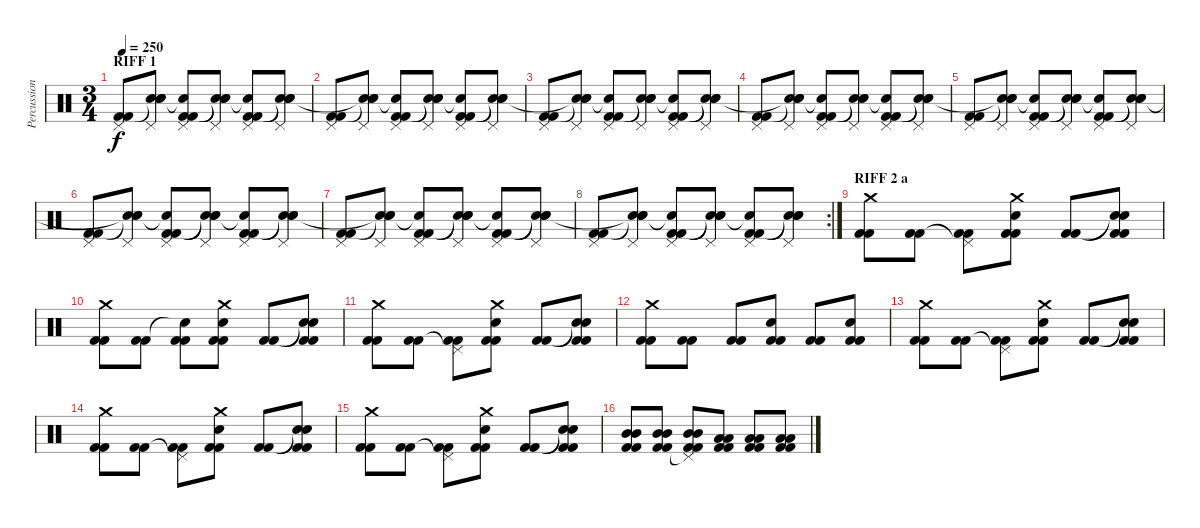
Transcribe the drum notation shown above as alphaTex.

\track ("Percussion" "Percussion") {instrument percussion}
\staff {score}
\articulation defaults
\ts (3 4)
\section ("" "RIFF 1")
\tempo 250
\clef neutral
\ks c
("Pedal Hi-Hat (hit)" "Kick (hit) 2" "Kick (hit) 2").8{dy f} ("Snare (hit) 2" "Pedal Hi-Hat (hit)" "Snare (hit)"{t} "Snare (hit)").8 ("Snare (hit)"{t} "Pedal Hi-Hat (hit)" "Kick (hit) 2" "Kick (hit) 2").8 ("Snare (hit) 2" "Pedal Hi-Hat (hit)" "Snare (hit)"{t} "Snare (hit)"{t}).8 ("Snare (hit)"{t} "Pedal Hi-Hat (hit)" "Kick (hit) 2" "Kick (hit) 2").8 ("Snare (hit) 2" "Pedal Hi-Hat (hit)" "Snare (hit)"{t} "Snare (hit)"{t}).8 |
("Pedal Hi-Hat (hit)" "Kick (hit) 2" "Kick (hit) 2").8 ("Snare (hit) 2" "Pedal Hi-Hat (hit)" "Snare (hit)"{t} "Snare (hit)"{t}).8 ("Snare (hit)"{t} "Pedal Hi-Hat (hit)" "Kick (hit) 2" "Kick (hit) 2").8 ("Snare (hit) 2" "Pedal Hi-Hat (hit)" "Snare (hit)"{t} "Snare (hit)"{t}).8 ("Snare (hit)"{t} "Pedal Hi-Hat (hit)" "Kick (hit) 2" "Kick (hit) 2").8 ("Snare (hit) 2" "Pedal Hi-Hat (hit)" "Snare (hit)"{t} "Snare (hit)"{t}).8 |
("Pedal Hi-Hat (hit)" "Kick (hit) 2" "Kick (hit) 2").8 ("Snare (hit) 2" "Pedal Hi-Hat (hit)" "Snare (hit)"{t} "Snare (hit)"{t}).8 ("Snare (hit)"{t} "Pedal Hi-Hat (hit)" "Kick (hit) 2" "Kick (hit) 2").8 ("Snare (hit) 2" "Pedal Hi-Hat (hit)" "Snare (hit)"{t} "Snare (hit)"{t}).8 ("Snare (hit)"{t} "Pedal Hi-Hat (hit)" "Kick (hit) 2" "Kick (hit) 2").8 ("Snare (hit) 2" "Pedal Hi-Hat (hit)" "Snare (hit)"{t} "Snare (hit)"{t}).8 |
("Pedal Hi-Hat (hit)" "Kick (hit) 2" "Kick (hit) 2").8 ("Snare (hit) 2" "Pedal Hi-Hat (hit)" "Snare (hit)"{t} "Snare (hit)"{t}).8 ("Snare (hit)"{t} "Pedal Hi-Hat (hit)" "Kick (hit) 2" "Kick (hit) 2").8 ("Snare (hit) 2" "Pedal Hi-Hat (hit)" "Snare (hit)"{t} "Snare (hit)"{t}).8 ("Snare (hit)"{t} "Pedal Hi-Hat (hit)" "Kick (hit) 2" "Kick (hit) 2").8 ("Snare (hit) 2" "Pedal Hi-Hat (hit)" "Snare (hit)"{t} "Snare (hit)"{t}).8 |
("Pedal Hi-Hat (hit)" "Kick (hit) 2" "Kick (hit) 2").8 ("Snare (hit) 2" "Pedal Hi-Hat (hit)" "Snare (hit)"{t} "Snare (hit)"{t}).8 ("Snare (hit)"{t} "Pedal Hi-Hat (hit)" "Kick (hit) 2" "Kick (hit) 2").8 ("Snare (hit) 2" "Pedal Hi-Hat (hit)" "Snare (hit)"{t} "Snare (hit)"{t}).8 ("Snare (hit)"{t} "Pedal Hi-Hat (hit)" "Kick (hit) 2" "Kick (hit) 2").8 ("Snare (hit) 2" "Pedal Hi-Hat (hit)" "Snare (hit)"{t} "Snare (hit)"{t}).8 |
("Pedal Hi-Hat (hit)" "Kick (hit) 2" "Kick (hit) 2").8 ("Snare (hit) 2" "Pedal Hi-Hat (hit)" "Snare (hit)"{t} "Snare (hit)"{t}).8 ("Snare (hit)"{t} "Pedal Hi-Hat (hit)" "Kick (hit) 2" "Kick (hit) 2").8 ("Snare (hit) 2" "Pedal Hi-Hat (hit)" "Snare (hit)"{t} "Snare (hit)"{t}).8 ("Snare (hit)"{t} "Pedal Hi-Hat (hit)" "Kick (hit) 2" "Kick (hit) 2").8 ("Snare (hit) 2" "Pedal Hi-Hat (hit)" "Snare (hit)"{t} "Snare (hit)"{t}).8 |
("Pedal Hi-Hat (hit)" "Kick (hit) 2" "Kick (hit) 2").8 ("Snare (hit) 2" "Pedal Hi-Hat (hit)" "Snare (hit)"{t} "Snare (hit)"{t}).8 ("Snare (hit)"{t} "Pedal Hi-Hat (hit)" "Kick (hit) 2" "Kick (hit) 2").8 ("Snare (hit) 2" "Pedal Hi-Hat (hit)" "Snare (hit)"{t} "Snare (hit)"{t}).8 ("Snare (hit)"{t} "Pedal Hi-Hat (hit)" "Kick (hit) 2" "Kick (hit) 2").8 ("Snare (hit) 2" "Pedal Hi-Hat (hit)" "Snare (hit)"{t} "Snare (hit)"{t}).8 |
\rc 2
("Pedal Hi-Hat (hit)" "Kick (hit) 2" "Kick (hit) 2").8 ("Snare (hit) 2" "Pedal Hi-Hat (hit)" "Snare (hit)"{t} "Snare (hit)"{t}).8 ("Snare (hit)"{t} "Pedal Hi-Hat (hit)" "Kick (hit) 2" "Kick (hit) 2").8 ("Snare (hit) 2" "Pedal Hi-Hat (hit)" "Snare (hit)"{t} "Snare (hit)"{t}).8 ("Snare (hit)"{t} "Pedal Hi-Hat (hit)" "Kick (hit) 2" "Kick (hit) 2").8 ("Snare (hit) 2" "Pedal Hi-Hat (hit)" "Snare (hit)"{t} "Snare (hit)"{t}).8 |
\section ("" "RIFF 2 a")
("Crash medium (hit)" "Kick (hit) 2" "Kick (hit) 2").8 ("Kick (hit) 2" "Kick (hit) 2").8 ("Pedal Hi-Hat (hit)"{t} "Kick (hit) 2" "Kick (hit) 2").8 ("Snare (hit) 2" "Crash medium (hit)" "Kick (hit) 2" "Kick (hit) 2").8 ("Kick (hit) 2" "Kick (hit) 2").8 ("Snare (hit)"{t} "Snare (hit)"{t} "Kick (hit) 2" "Kick (hit) 2").8 |
("Crash medium (hit)" "Kick (hit) 2" "Kick (hit) 2").8 ("Kick (hit) 2" "Kick (hit) 2").8 ("Snare (hit)"{t} "Kick (hit) 2" "Kick (hit) 2").8 ("Snare (hit) 2" "Crash medium (hit)" "Kick (hit) 2" "Kick (hit) 2").8 ("Kick (hit) 2" "Kick (hit) 2").8 ("Snare (hit)"{t} "Snare (hit)"{t} "Kick (hit) 2" "Kick (hit) 2").8 |
("Crash medium (hit)" "Kick (hit) 2" "Kick (hit) 2").8 ("Kick (hit) 2" "Kick (hit) 2").8 ("Pedal Hi-Hat (hit)"{t} "Kick (hit) 2" "Kick (hit) 2").8 ("Snare (hit) 2" "Crash medium (hit)" "Kick (hit) 2" "Kick (hit) 2").8 ("Kick (hit) 2" "Kick (hit) 2").8 ("Snare (hit)"{t} "Snare (hit)"{t} "Kick (hit) 2" "Kick (hit) 2").8 |
("Crash medium (hit)" "Kick (hit) 2" "Kick (hit) 2").8 ("Kick (hit) 2" "Kick (hit) 2").8 ("Kick (hit) 2" "Kick (hit) 2").8 ("Snare (hit) 2" "Kick (hit) 2" "Kick (hit) 2").8 ("Kick (hit) 2" "Kick (hit) 2").8 ("Snare (hit) 2" "Kick (hit) 2" "Kick (hit) 2").8 |
("Crash medium (hit)" "Kick (hit) 2" "Kick (hit) 2").8 ("Kick (hit) 2" "Kick (hit) 2").8 ("Pedal Hi-Hat (hit)"{t} "Kick (hit) 2" "Kick (hit) 2").8 ("Snare (hit) 2" "Crash medium (hit)" "Kick (hit) 2" "Kick (hit) 2").8 ("Kick (hit) 2" "Kick (hit) 2").8 ("Snare (hit)"{t} "Snare (hit)"{t} "Kick (hit) 2" "Kick (hit) 2").8 |
("Crash medium (hit)" "Kick (hit) 2" "Kick (hit) 2").8 ("Kick (hit) 2" "Kick (hit) 2").8 ("Pedal Hi-Hat (hit)"{t} "Kick (hit) 2" "Kick (hit) 2").8 ("Snare (hit) 2" "Crash medium (hit)" "Kick (hit) 2" "Kick (hit) 2").8 ("Kick (hit) 2" "Kick (hit) 2").8 ("Snare (hit)"{t} "Snare (hit)"{t} "Kick (hit) 2" "Kick (hit) 2").8 |
("Crash medium (hit)" "Kick (hit) 2" "Kick (hit) 2").8 ("Kick (hit) 2" "Kick (hit) 2").8 ("Pedal Hi-Hat (hit)"{t} "Kick (hit) 2" "Kick (hit) 2").8 ("Snare (hit) 2" "Crash medium (hit)" "Kick (hit) 2" "Kick (hit) 2").8 ("Kick (hit) 2" "Kick (hit) 2").8 ("Snare (hit)"{t} "Snare (hit)"{t} "Kick (hit) 2" "Kick (hit) 2").8 |
("Mid Tom (hit)" "Mid Tom (hit)" "Kick (hit) 2" "Kick (hit) 2").8 ("Mid Tom (hit)" "Mid Tom (hit)" "Kick (hit) 2" "Kick (hit) 2").8 ("Mid Tom (hit)" "Mid Tom (hit)" "Pedal Hi-Hat (hit)"{t} "Kick (hit) 2" "Kick (hit) 2").8 ("Low Floor Tom (hit)" "Low Floor Tom (hit)" "Kick (hit) 2" "Kick (hit) 2").8 ("Low Floor Tom (hit)" "Low Floor Tom (hit)" "Kick (hit) 2" "Kick (hit) 2").8 ("Low Floor Tom (hit)" "Low Floor Tom (hit)" "Kick (hit) 2" "Kick (hit) 2").8
